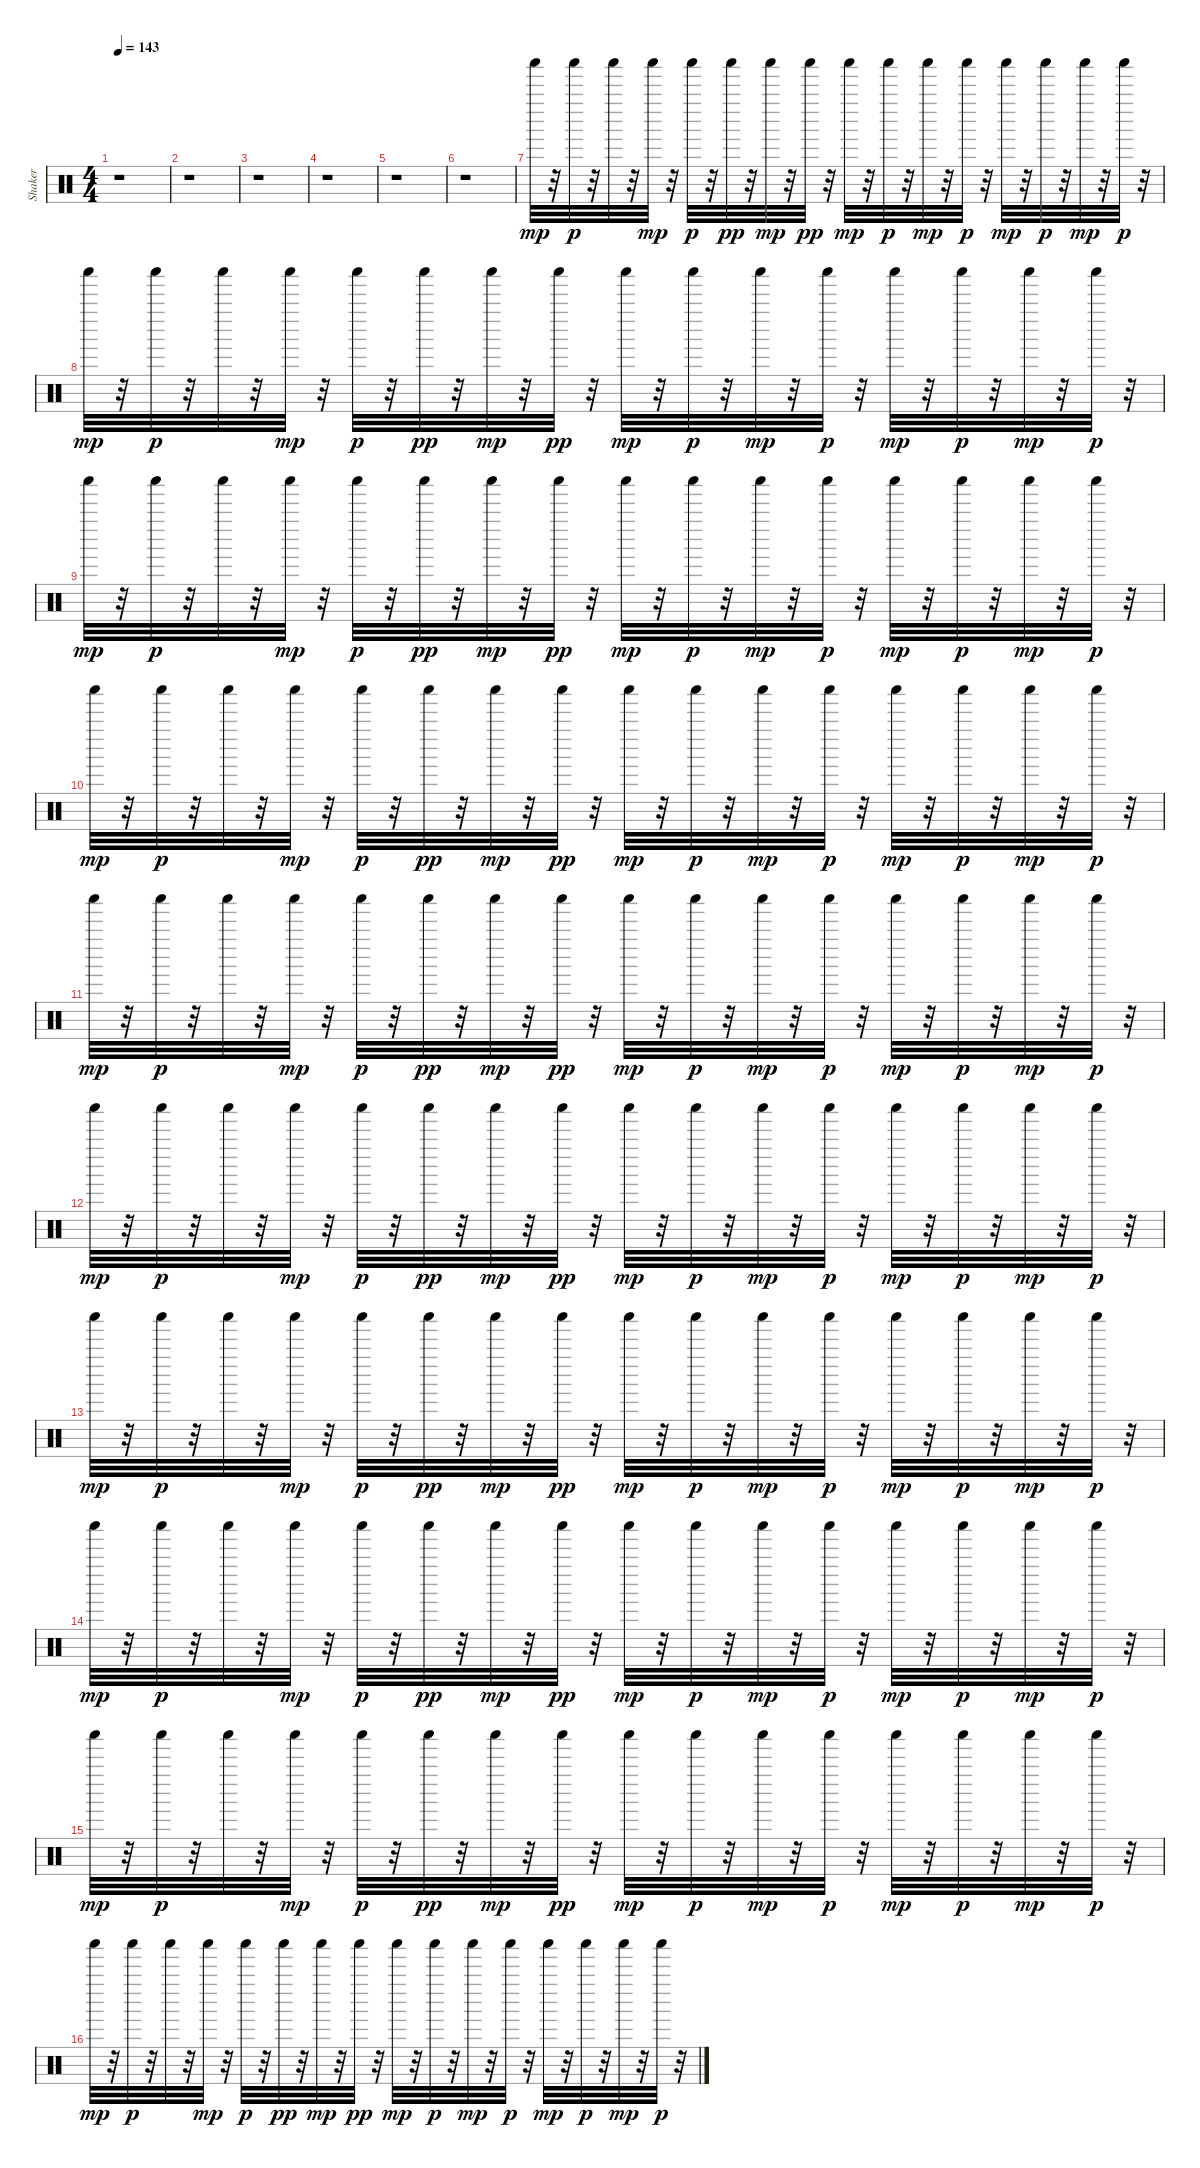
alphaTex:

\track ("Shaker   " "Shaker   ") {instrument percussion}
\staff {score}
\articulation defaults
\ts (4 4)
\tempo 143
\clef neutral
\ks c
r.1{dy mp} |
r.1 |
r.1 |
r.1 |
r.1 |
r.1 |
"Shaker (hit)".32 r.32 "Shaker (hit)".32{dy p} r.32 "Shaker (hit)".32 r.32 "Shaker (hit)".32{dy mp} r.32 "Shaker (hit)".32{dy p} r.32 "Shaker (hit)".32{dy pp} r.32 "Shaker (hit)".32{dy mp} r.32 "Shaker (hit)".32{dy pp} r.32 "Shaker (hit)".32{dy mp} r.32 "Shaker (hit)".32{dy p} r.32 "Shaker (hit)".32{dy mp} r.32 "Shaker (hit)".32{dy p} r.32 "Shaker (hit)".32{dy mp} r.32 "Shaker (hit)".32{dy p} r.32 "Shaker (hit)".32{dy mp} r.32 "Shaker (hit)".32{dy p} r.32 |
"Shaker (hit)".32{dy mp} r.32 "Shaker (hit)".32{dy p} r.32 "Shaker (hit)".32 r.32 "Shaker (hit)".32{dy mp} r.32 "Shaker (hit)".32{dy p} r.32 "Shaker (hit)".32{dy pp} r.32 "Shaker (hit)".32{dy mp} r.32 "Shaker (hit)".32{dy pp} r.32 "Shaker (hit)".32{dy mp} r.32 "Shaker (hit)".32{dy p} r.32 "Shaker (hit)".32{dy mp} r.32 "Shaker (hit)".32{dy p} r.32 "Shaker (hit)".32{dy mp} r.32 "Shaker (hit)".32{dy p} r.32 "Shaker (hit)".32{dy mp} r.32 "Shaker (hit)".32{dy p} r.32 |
"Shaker (hit)".32{dy mp} r.32 "Shaker (hit)".32{dy p} r.32 "Shaker (hit)".32 r.32 "Shaker (hit)".32{dy mp} r.32 "Shaker (hit)".32{dy p} r.32 "Shaker (hit)".32{dy pp} r.32 "Shaker (hit)".32{dy mp} r.32 "Shaker (hit)".32{dy pp} r.32 "Shaker (hit)".32{dy mp} r.32 "Shaker (hit)".32{dy p} r.32 "Shaker (hit)".32{dy mp} r.32 "Shaker (hit)".32{dy p} r.32 "Shaker (hit)".32{dy mp} r.32 "Shaker (hit)".32{dy p} r.32 "Shaker (hit)".32{dy mp} r.32 "Shaker (hit)".32{dy p} r.32 |
"Shaker (hit)".32{dy mp} r.32 "Shaker (hit)".32{dy p} r.32 "Shaker (hit)".32 r.32 "Shaker (hit)".32{dy mp} r.32 "Shaker (hit)".32{dy p} r.32 "Shaker (hit)".32{dy pp} r.32 "Shaker (hit)".32{dy mp} r.32 "Shaker (hit)".32{dy pp} r.32 "Shaker (hit)".32{dy mp} r.32 "Shaker (hit)".32{dy p} r.32 "Shaker (hit)".32{dy mp} r.32 "Shaker (hit)".32{dy p} r.32 "Shaker (hit)".32{dy mp} r.32 "Shaker (hit)".32{dy p} r.32 "Shaker (hit)".32{dy mp} r.32 "Shaker (hit)".32{dy p} r.32 |
"Shaker (hit)".32{dy mp} r.32 "Shaker (hit)".32{dy p} r.32 "Shaker (hit)".32 r.32 "Shaker (hit)".32{dy mp} r.32 "Shaker (hit)".32{dy p} r.32 "Shaker (hit)".32{dy pp} r.32 "Shaker (hit)".32{dy mp} r.32 "Shaker (hit)".32{dy pp} r.32 "Shaker (hit)".32{dy mp} r.32 "Shaker (hit)".32{dy p} r.32 "Shaker (hit)".32{dy mp} r.32 "Shaker (hit)".32{dy p} r.32 "Shaker (hit)".32{dy mp} r.32 "Shaker (hit)".32{dy p} r.32 "Shaker (hit)".32{dy mp} r.32 "Shaker (hit)".32{dy p} r.32 |
"Shaker (hit)".32{dy mp} r.32 "Shaker (hit)".32{dy p} r.32 "Shaker (hit)".32 r.32 "Shaker (hit)".32{dy mp} r.32 "Shaker (hit)".32{dy p} r.32 "Shaker (hit)".32{dy pp} r.32 "Shaker (hit)".32{dy mp} r.32 "Shaker (hit)".32{dy pp} r.32 "Shaker (hit)".32{dy mp} r.32 "Shaker (hit)".32{dy p} r.32 "Shaker (hit)".32{dy mp} r.32 "Shaker (hit)".32{dy p} r.32 "Shaker (hit)".32{dy mp} r.32 "Shaker (hit)".32{dy p} r.32 "Shaker (hit)".32{dy mp} r.32 "Shaker (hit)".32{dy p} r.32 |
"Shaker (hit)".32{dy mp} r.32 "Shaker (hit)".32{dy p} r.32 "Shaker (hit)".32 r.32 "Shaker (hit)".32{dy mp} r.32 "Shaker (hit)".32{dy p} r.32 "Shaker (hit)".32{dy pp} r.32 "Shaker (hit)".32{dy mp} r.32 "Shaker (hit)".32{dy pp} r.32 "Shaker (hit)".32{dy mp} r.32 "Shaker (hit)".32{dy p} r.32 "Shaker (hit)".32{dy mp} r.32 "Shaker (hit)".32{dy p} r.32 "Shaker (hit)".32{dy mp} r.32 "Shaker (hit)".32{dy p} r.32 "Shaker (hit)".32{dy mp} r.32 "Shaker (hit)".32{dy p} r.32 |
"Shaker (hit)".32{dy mp} r.32 "Shaker (hit)".32{dy p} r.32 "Shaker (hit)".32 r.32 "Shaker (hit)".32{dy mp} r.32 "Shaker (hit)".32{dy p} r.32 "Shaker (hit)".32{dy pp} r.32 "Shaker (hit)".32{dy mp} r.32 "Shaker (hit)".32{dy pp} r.32 "Shaker (hit)".32{dy mp} r.32 "Shaker (hit)".32{dy p} r.32 "Shaker (hit)".32{dy mp} r.32 "Shaker (hit)".32{dy p} r.32 "Shaker (hit)".32{dy mp} r.32 "Shaker (hit)".32{dy p} r.32 "Shaker (hit)".32{dy mp} r.32 "Shaker (hit)".32{dy p} r.32 |
"Shaker (hit)".32{dy mp} r.32 "Shaker (hit)".32{dy p} r.32 "Shaker (hit)".32 r.32 "Shaker (hit)".32{dy mp} r.32 "Shaker (hit)".32{dy p} r.32 "Shaker (hit)".32{dy pp} r.32 "Shaker (hit)".32{dy mp} r.32 "Shaker (hit)".32{dy pp} r.32 "Shaker (hit)".32{dy mp} r.32 "Shaker (hit)".32{dy p} r.32 "Shaker (hit)".32{dy mp} r.32 "Shaker (hit)".32{dy p} r.32 "Shaker (hit)".32{dy mp} r.32 "Shaker (hit)".32{dy p} r.32 "Shaker (hit)".32{dy mp} r.32 "Shaker (hit)".32{dy p} r.32 |
"Shaker (hit)".32{dy mp} r.32 "Shaker (hit)".32{dy p} r.32 "Shaker (hit)".32 r.32 "Shaker (hit)".32{dy mp} r.32 "Shaker (hit)".32{dy p} r.32 "Shaker (hit)".32{dy pp} r.32 "Shaker (hit)".32{dy mp} r.32 "Shaker (hit)".32{dy pp} r.32 "Shaker (hit)".32{dy mp} r.32 "Shaker (hit)".32{dy p} r.32 "Shaker (hit)".32{dy mp} r.32 "Shaker (hit)".32{dy p} r.32 "Shaker (hit)".32{dy mp} r.32 "Shaker (hit)".32{dy p} r.32 "Shaker (hit)".32{dy mp} r.32 "Shaker (hit)".32{dy p} r.32
